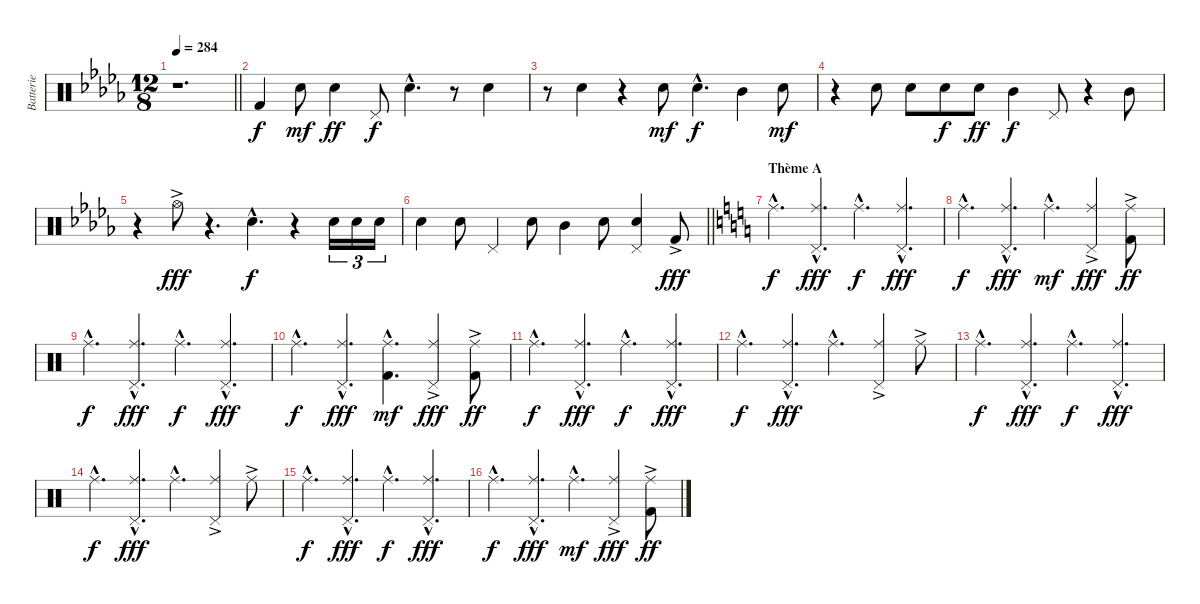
\track ("Batterie" "Batterie") {instrument percussion}
\staff {score}
\articulation defaults
\ts (12 8)
\tempo 284
\clef neutral
\barLineRight lightlight
\ks db
r.1{d dy mp} |
"Kick (hit) 2".4{dy f volume 16 balance 8} "Snare (hit) 2".8{dy mf} "Snare (hit) 2".4{dy ff} "Pedal Hi-Hat (hit)".8{dy f} "Snare (hit) 2"{hac}.4{d} r.8 "Snare (hit) 2".4 |
r.8 "Snare (hit) 2".4 r.4 "Snare (hit) 2".8{dy mf} "Snare (hit) 2"{hac}.4{d dy f} "Mid Tom (hit)".4 "Snare (hit) 2".8{dy mf} |
r.4 "Snare (hit) 2".8 "Snare (hit) 2".8 "Snare (hit) 2".8{dy f} "Snare (hit) 2".8{dy ff} "Mid Tom (hit)".4{dy f} "Pedal Hi-Hat (hit)".8 r.4 "Mid Tom (hit)".8 |
r.4 "Hi-Hat (open)"{ac}.8{dy fff} r.4{d} "Snare (hit) 2"{hac}.4{d dy f} r.4 "Snare (hit) 2".16{tu (3 2)} "Snare (hit) 2".16{tu (3 2)} "Snare (hit) 2".16{tu (3 2)} |
\barLineRight lightlight "Snare (hit) 2".4 "Snare (hit) 2".8 "Pedal Hi-Hat (hit)".4 "Snare (hit) 2".8 "Mid Tom (hit)".4 "Snare (hit) 2".8
("Pedal Hi-Hat (hit)" "Snare (hit) 2").4 "Kick (hit) 2"{ac}.8{dy fff} |
\section ("" "Thème A")
\ks c "Ride (middle)"{hac}.4{d dy f volume 12 balance 8}
("Ride (middle)"{hac} "Pedal Hi-Hat (hit)"{hac}).4{d dy fff} "Ride (middle)"{hac}.4{d dy f} ("Ride (middle)"{hac} "Pedal Hi-Hat (hit)"{hac}).4{d dy fff} |
"Ride (middle)"{hac}.4{d dy f} ("Ride (middle)"{hac} "Pedal Hi-Hat (hit)"{hac}).4{d dy fff} "Ride (middle)"{hac}.4{d dy mf} ("Ride (middle)" "Pedal Hi-Hat (hit)"{ac}).4{dy fff} ("Ride (middle)"{ac} "Kick (hit) 2"{ac}).8{dy ff} |
"Ride (middle)"{hac}.4{d dy f} ("Ride (middle)"{hac} "Pedal Hi-Hat (hit)"{hac}).4{d dy fff} "Ride (middle)"{hac}.4{d dy f} ("Ride (middle)"{hac} "Pedal Hi-Hat (hit)"{hac}).4{d dy fff} |
"Ride (middle)"{hac}.4{d dy f} ("Ride (middle)"{hac} "Pedal Hi-Hat (hit)"{hac}).4{d dy fff} ("Ride (middle)"{hac} "Kick (hit) 2"{hac}).4{d dy mf} ("Ride (middle)" "Pedal Hi-Hat (hit)"{ac}).4{dy fff} ("Ride (middle)"{ac} "Kick (hit) 2"{ac}).8{dy ff} |
"Ride (middle)"{hac}.4{d dy f} ("Ride (middle)"{hac} "Pedal Hi-Hat (hit)"{hac}).4{d dy fff} "Ride (middle)"{hac}.4{d dy f} ("Ride (middle)"{hac} "Pedal Hi-Hat (hit)"{hac}).4{d dy fff} |
"Ride (middle)"{hac}.4{d dy f} ("Ride (middle)"{hac} "Pedal Hi-Hat (hit)"{hac}).4{d dy fff} "Ride (middle)"{hac}.4{d} ("Ride (middle)" "Pedal Hi-Hat (hit)"{ac}).4 "Ride (middle)"{ac}.8 |
"Ride (middle)"{hac}.4{d dy f} ("Ride (middle)"{hac} "Pedal Hi-Hat (hit)"{hac}).4{d dy fff} "Ride (middle)"{hac}.4{d dy f} ("Ride (middle)"{hac} "Pedal Hi-Hat (hit)"{hac}).4{d dy fff} |
"Ride (middle)"{hac}.4{d dy f} ("Ride (middle)"{hac} "Pedal Hi-Hat (hit)"{hac}).4{d dy fff} "Ride (middle)"{hac}.4{d} ("Ride (middle)" "Pedal Hi-Hat (hit)"{ac}).4 "Ride (middle)"{ac}.8 |
"Ride (middle)"{hac}.4{d dy f volume 12 balance 8} ("Ride (middle)"{hac} "Pedal Hi-Hat (hit)"{hac}).4{d dy fff} "Ride (middle)"{hac}.4{d dy f} ("Ride (middle)"{hac} "Pedal Hi-Hat (hit)"{hac}).4{d dy fff} |
"Ride (middle)"{hac}.4{d dy f} ("Ride (middle)"{hac} "Pedal Hi-Hat (hit)"{hac}).4{d dy fff} "Ride (middle)"{hac}.4{d dy mf} ("Ride (middle)" "Pedal Hi-Hat (hit)"{ac}).4{dy fff} ("Ride (middle)"{ac} "Kick (hit) 2"{ac}).8{dy ff}
